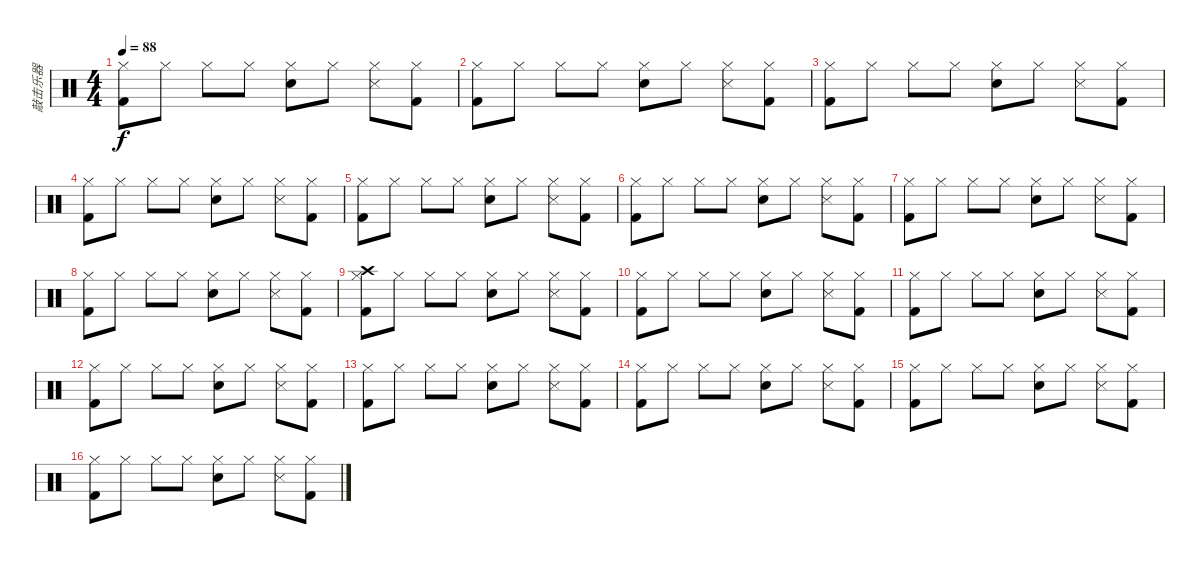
\track ("敲击乐器" "敲击乐器") {instrument percussion}
\staff {score}
\articulation defaults
\ts (4 4)
\tempo 88
\clef neutral
\ks c
("Kick (hit) 2" "Hi-Hat (closed)").8{dy f} "Hi-Hat (closed)".8 "Hi-Hat (closed)".8 "Hi-Hat (closed)".8 ("Hand Clap (hit)" "Hi-Hat (closed)").8 "Hi-Hat (closed)".8 ("Snare (side stick) 3" "Hi-Hat (closed)").8 ("Kick (hit) 2" "Hi-Hat (closed)").8 |
("Kick (hit) 2" "Hi-Hat (closed)").8 "Hi-Hat (closed)".8 "Hi-Hat (closed)".8 "Hi-Hat (closed)".8 ("Snare (hit) 2" "Hi-Hat (closed)").8 "Hi-Hat (closed)".8 ("Snare (side stick) 3" "Hi-Hat (closed)").8 ("Kick (hit) 2" "Hi-Hat (closed)").8 |
("Kick (hit) 2" "Hi-Hat (closed)").8 "Hi-Hat (closed)".8 "Hi-Hat (closed)".8 "Hi-Hat (closed)".8 ("Hand Clap (hit)" "Hi-Hat (closed)").8 "Hi-Hat (closed)".8 ("Snare (side stick) 3" "Hi-Hat (closed)").8 ("Kick (hit) 2" "Hi-Hat (closed)").8 |
("Kick (hit) 2" "Hi-Hat (closed)").8 "Hi-Hat (closed)".8 "Hi-Hat (closed)".8 "Hi-Hat (closed)".8 ("Snare (hit) 2" "Hi-Hat (closed)").8 "Hi-Hat (closed)".8 ("Snare (side stick) 3" "Hi-Hat (closed)").8 ("Kick (hit) 2" "Hi-Hat (closed)").8 |
("Kick (hit) 2" "Hi-Hat (closed)").8 "Hi-Hat (closed)".8 "Hi-Hat (closed)".8 "Hi-Hat (closed)".8 ("Hand Clap (hit)" "Hi-Hat (closed)").8 "Hi-Hat (closed)".8 ("Snare (side stick) 3" "Hi-Hat (closed)").8 ("Kick (hit) 2" "Hi-Hat (closed)").8 |
("Kick (hit) 2" "Hi-Hat (closed)").8 "Hi-Hat (closed)".8 "Hi-Hat (closed)".8 "Hi-Hat (closed)".8 ("Snare (hit) 2" "Hi-Hat (closed)").8 "Hi-Hat (closed)".8 ("Snare (side stick) 3" "Hi-Hat (closed)").8 ("Kick (hit) 2" "Hi-Hat (closed)").8 |
("Kick (hit) 2" "Hi-Hat (closed)").8 "Hi-Hat (closed)".8 "Hi-Hat (closed)".8 "Hi-Hat (closed)".8 ("Hand Clap (hit)" "Hi-Hat (closed)").8 "Hi-Hat (closed)".8 ("Snare (side stick) 3" "Hi-Hat (closed)").8 ("Kick (hit) 2" "Hi-Hat (closed)").8 |
("Kick (hit) 2" "Hi-Hat (closed)").8 "Hi-Hat (closed)".8 "Hi-Hat (closed)".8 "Hi-Hat (closed)".8 ("Snare (hit) 2" "Hi-Hat (closed)").8 "Hi-Hat (closed)".8 ("Snare (side stick) 3" "Hi-Hat (closed)").8 ("Kick (hit) 2" "Hi-Hat (closed)").8 |
("Kick (hit) 2" "Crash high (hit)" "Hi-Hat (closed)").8 "Hi-Hat (closed)".8 "Hi-Hat (closed)".8 "Hi-Hat (closed)".8 ("Hand Clap (hit)" "Hi-Hat (closed)").8 "Hi-Hat (closed)".8 ("Snare (side stick) 3" "Hi-Hat (closed)").8 ("Kick (hit) 2" "Hi-Hat (closed)").8 |
("Kick (hit) 2" "Hi-Hat (closed)").8 "Hi-Hat (closed)".8 "Hi-Hat (closed)".8 "Hi-Hat (closed)".8 ("Snare (hit) 2" "Hi-Hat (closed)").8 "Hi-Hat (closed)".8 ("Snare (side stick) 3" "Hi-Hat (closed)").8 ("Kick (hit) 2" "Hi-Hat (closed)").8 |
("Kick (hit) 2" "Hi-Hat (closed)").8 "Hi-Hat (closed)".8 "Hi-Hat (closed)".8 "Hi-Hat (closed)".8 ("Hand Clap (hit)" "Hi-Hat (closed)").8 "Hi-Hat (closed)".8 ("Snare (side stick) 3" "Hi-Hat (closed)").8 ("Kick (hit) 2" "Hi-Hat (closed)").8 |
("Kick (hit) 2" "Hi-Hat (closed)").8 "Hi-Hat (closed)".8 "Hi-Hat (closed)".8 "Hi-Hat (closed)".8 ("Snare (hit) 2" "Hi-Hat (closed)").8 "Hi-Hat (closed)".8 ("Snare (side stick) 3" "Hi-Hat (closed)").8 ("Kick (hit) 2" "Hi-Hat (closed)").8 |
("Kick (hit) 2" "Hi-Hat (closed)").8 "Hi-Hat (closed)".8 "Hi-Hat (closed)".8 "Hi-Hat (closed)".8 ("Hand Clap (hit)" "Hi-Hat (closed)").8 "Hi-Hat (closed)".8 ("Snare (side stick) 3" "Hi-Hat (closed)").8 ("Kick (hit) 2" "Hi-Hat (closed)").8 |
("Kick (hit) 2" "Hi-Hat (closed)").8 "Hi-Hat (closed)".8 "Hi-Hat (closed)".8 "Hi-Hat (closed)".8 ("Snare (hit) 2" "Hi-Hat (closed)").8 "Hi-Hat (closed)".8 ("Snare (side stick) 3" "Hi-Hat (closed)").8 ("Kick (hit) 2" "Hi-Hat (closed)").8 |
("Kick (hit) 2" "Hi-Hat (closed)").8 "Hi-Hat (closed)".8 "Hi-Hat (closed)".8 "Hi-Hat (closed)".8 ("Hand Clap (hit)" "Hi-Hat (closed)").8 "Hi-Hat (closed)".8 ("Snare (side stick) 3" "Hi-Hat (closed)").8 ("Kick (hit) 2" "Hi-Hat (closed)").8 |
("Kick (hit) 2" "Hi-Hat (closed)").8 "Hi-Hat (closed)".8 "Hi-Hat (closed)".8 "Hi-Hat (closed)".8 ("Snare (hit) 2" "Hi-Hat (closed)").8 "Hi-Hat (closed)".8 ("Snare (side stick) 3" "Hi-Hat (closed)").8 ("Kick (hit) 2" "Hi-Hat (closed)").8
